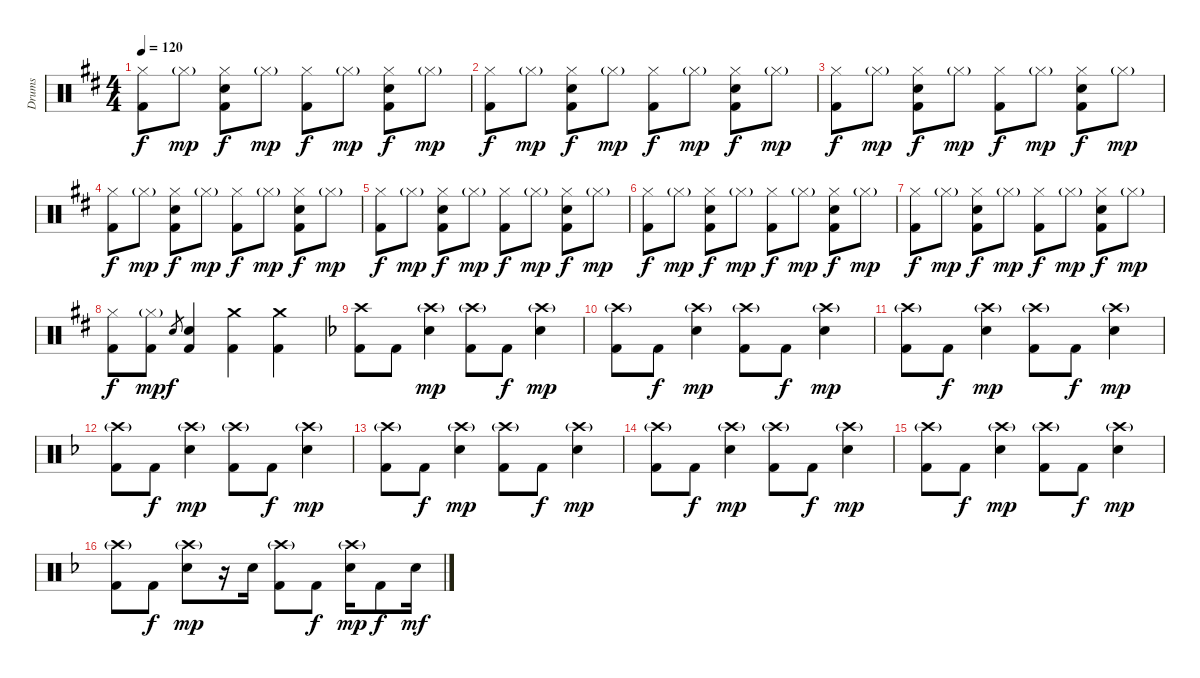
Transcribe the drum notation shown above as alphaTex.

\track ("Drums" "Drums") {instrument percussion}
\staff {score}
\articulation defaults
\ts (4 4)
\tempo 120
\clef neutral
\ks bminor
("Hi-Hat (closed)" "Kick (hit) 2").8{dy f} "Hi-Hat (closed)"{g}.8{dy mp} ("Hi-Hat (closed)" "Snare (hit) 2" "Kick (hit) 2").8{dy f} "Hi-Hat (closed)"{g}.8{dy mp} ("Hi-Hat (closed)" "Kick (hit) 2").8{dy f} "Hi-Hat (closed)"{g}.8{dy mp} ("Hi-Hat (closed)" "Snare (hit) 2" "Kick (hit) 2").8{dy f} "Hi-Hat (closed)"{g}.8{dy mp} |
("Hi-Hat (closed)" "Kick (hit) 2").8{dy f} "Hi-Hat (closed)"{g}.8{dy mp} ("Hi-Hat (closed)" "Snare (hit) 2" "Kick (hit) 2").8{dy f} "Hi-Hat (closed)"{g}.8{dy mp} ("Hi-Hat (closed)" "Kick (hit) 2").8{dy f} "Hi-Hat (closed)"{g}.8{dy mp} ("Hi-Hat (closed)" "Snare (hit) 2" "Kick (hit) 2").8{dy f} "Hi-Hat (closed)"{g}.8{dy mp} |
("Hi-Hat (closed)" "Kick (hit) 2").8{dy f} "Hi-Hat (closed)"{g}.8{dy mp} ("Hi-Hat (closed)" "Snare (hit) 2" "Kick (hit) 2").8{dy f} "Hi-Hat (closed)"{g}.8{dy mp} ("Hi-Hat (closed)" "Kick (hit) 2").8{dy f} "Hi-Hat (closed)"{g}.8{dy mp} ("Hi-Hat (closed)" "Snare (hit) 2" "Kick (hit) 2").8{dy f} "Hi-Hat (closed)"{g}.8{dy mp} |
("Hi-Hat (closed)" "Kick (hit) 2").8{dy f} "Hi-Hat (closed)"{g}.8{dy mp} ("Hi-Hat (closed)" "Snare (hit) 2" "Kick (hit) 2").8{dy f} "Hi-Hat (closed)"{g}.8{dy mp} ("Hi-Hat (closed)" "Kick (hit) 2").8{dy f} "Hi-Hat (closed)"{g}.8{dy mp} ("Hi-Hat (closed)" "Snare (hit) 2" "Kick (hit) 2").8{dy f} "Hi-Hat (closed)"{g}.8{dy mp} |
("Hi-Hat (closed)" "Kick (hit) 2").8{dy f} "Hi-Hat (closed)"{g}.8{dy mp} ("Hi-Hat (closed)" "Snare (hit) 2" "Kick (hit) 2").8{dy f} "Hi-Hat (closed)"{g}.8{dy mp} ("Hi-Hat (closed)" "Kick (hit) 2").8{dy f} "Hi-Hat (closed)"{g}.8{dy mp} ("Hi-Hat (closed)" "Snare (hit) 2" "Kick (hit) 2").8{dy f} "Hi-Hat (closed)"{g}.8{dy mp} |
("Hi-Hat (closed)" "Kick (hit) 2").8{dy f} "Hi-Hat (closed)"{g}.8{dy mp} ("Hi-Hat (closed)" "Snare (hit) 2" "Kick (hit) 2").8{dy f} "Hi-Hat (closed)"{g}.8{dy mp} ("Hi-Hat (closed)" "Kick (hit) 2").8{dy f} "Hi-Hat (closed)"{g}.8{dy mp} ("Hi-Hat (closed)" "Snare (hit) 2" "Kick (hit) 2").8{dy f} "Hi-Hat (closed)"{g}.8{dy mp} |
("Hi-Hat (closed)" "Kick (hit) 2").8{dy f} "Hi-Hat (closed)"{g}.8{dy mp} ("Hi-Hat (closed)" "Snare (hit) 2" "Kick (hit) 2").8{dy f} "Hi-Hat (closed)"{g}.8{dy mp} ("Hi-Hat (closed)" "Kick (hit) 2").8{dy f} "Hi-Hat (closed)"{g}.8{dy mp} ("Hi-Hat (closed)" "Snare (hit) 2" "Kick (hit) 2").8{dy f} "Hi-Hat (closed)"{g}.8{dy mp} |
("Hi-Hat (closed)" "Kick (hit) 2").8{dy f} ("Hi-Hat (closed)"{g} "Kick (hit) 2").8{dy mp} "Snare (hit) 2".8{gr dy f} ("Snare (hit) 2" "Kick (hit) 2").4 ("Crash medium (hit)" "Kick (hit) 2").4 ("Crash medium (hit)" "Kick (hit) 2").4 |
\ks dminor
("Crash high (hit)" "Kick (hit) 2").8 "Kick (hit) 2".8 ("Crash high (hit)"{g} "Snare (hit) 2").4{dy mp} ("Crash high (hit)"{g} "Kick (hit) 2").8 "Kick (hit) 2".8{dy f} ("Crash high (hit)"{g} "Snare (hit) 2").4{dy mp} |
("Crash high (hit)"{g} "Kick (hit) 2").8 "Kick (hit) 2".8{dy f} ("Crash high (hit)"{g} "Snare (hit) 2").4{dy mp} ("Crash high (hit)"{g} "Kick (hit) 2").8 "Kick (hit) 2".8{dy f} ("Crash high (hit)"{g} "Snare (hit) 2").4{dy mp} |
("Crash high (hit)"{g} "Kick (hit) 2").8 "Kick (hit) 2".8{dy f} ("Crash high (hit)"{g} "Snare (hit) 2").4{dy mp} ("Crash high (hit)"{g} "Kick (hit) 2").8 "Kick (hit) 2".8{dy f} ("Crash high (hit)"{g} "Snare (hit) 2").4{dy mp} |
("Crash high (hit)"{g} "Kick (hit) 2").8 "Kick (hit) 2".8{dy f} ("Crash high (hit)"{g} "Snare (hit) 2").4{dy mp} ("Crash high (hit)"{g} "Kick (hit) 2").8 "Kick (hit) 2".8{dy f} ("Crash high (hit)"{g} "Snare (hit) 2").4{dy mp} |
("Crash high (hit)"{g} "Kick (hit) 2").8 "Kick (hit) 2".8{dy f} ("Crash high (hit)"{g} "Snare (hit) 2").4{dy mp} ("Crash high (hit)"{g} "Kick (hit) 2").8 "Kick (hit) 2".8{dy f} ("Crash high (hit)"{g} "Snare (hit) 2").4{dy mp} |
("Crash high (hit)"{g} "Kick (hit) 2").8 "Kick (hit) 2".8{dy f} ("Crash high (hit)"{g} "Snare (hit) 2").4{dy mp} ("Crash high (hit)"{g} "Kick (hit) 2").8 "Kick (hit) 2".8{dy f} ("Crash high (hit)"{g} "Snare (hit) 2").4{dy mp} |
("Crash high (hit)"{g} "Kick (hit) 2").8 "Kick (hit) 2".8{dy f} ("Crash high (hit)"{g} "Snare (hit) 2").4{dy mp} ("Crash high (hit)"{g} "Kick (hit) 2").8 "Kick (hit) 2".8{dy f} ("Crash high (hit)"{g} "Snare (hit) 2").4{dy mp} |
("Crash high (hit)"{g} "Kick (hit) 2").8 "Kick (hit) 2".8{dy f} ("Crash high (hit)"{g} "Snare (hit) 2").8{dy mp} r.16 "Snare (hit) 2".16 ("Crash high (hit)"{g} "Kick (hit) 2").8 "Kick (hit) 2".8{dy f} ("Crash high (hit)"{g} "Snare (hit) 2").16{dy mp} "Kick (hit) 2".8{dy f} "Snare (hit) 2".16{dy mf}
